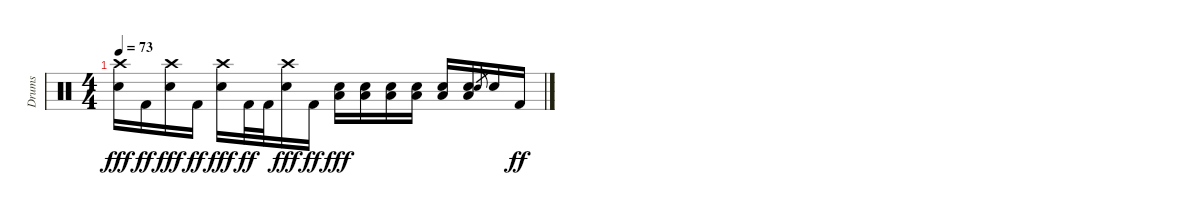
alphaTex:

\track ("Drums" "Drums") {instrument percussion}
\staff {score}
\articulation defaults
\ts (4 4)
\tempo 73
\clef neutral
\ks c
("Crash high (hit)" "Electric Snare (hit)").16{dy fff} "Kick (hit) 2".16{dy ff} ("Crash high (hit)" "Electric Snare (hit)").16{dy fff} "Kick (hit) 2".16{dy ff} ("Crash high (hit)" "Electric Snare (hit)").16{dy fff} "Kick (hit) 2".32{dy ff} "Kick (hit) 2".32 ("Crash high (hit)" "Electric Snare (hit)").16{dy fff} "Kick (hit) 2".16{dy ff} ("Low Floor Tom (hit)" "Electric Snare (hit)").16{dy fff} ("Low Floor Tom (hit)" "Electric Snare (hit)").16 ("Low Floor Tom (hit)" "Electric Snare (hit)").16 ("Low Floor Tom (hit)" "Electric Snare (hit)").16 ("Low Floor Tom (hit)" "Electric Snare (hit)").16 ("Low Floor Tom (hit)" "Electric Snare (hit)").16 "Electric Snare (hit)".8{gr} "Electric Snare (hit)".16 "Kick (hit) 2".16{dy ff}
